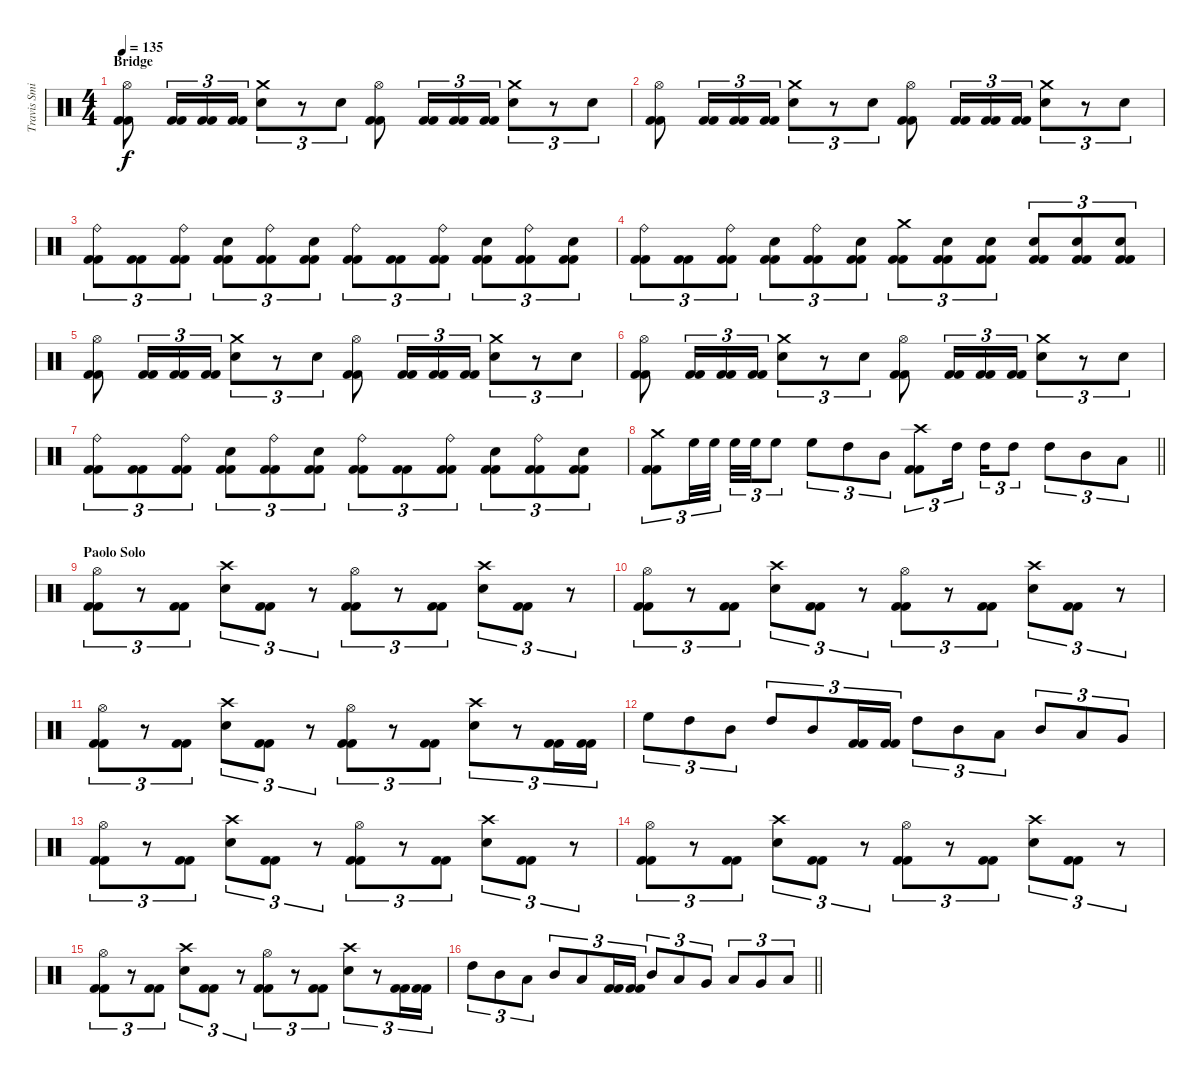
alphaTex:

\track ("Travis Smith" "Travis Smi") {instrument percussion}
\staff {score}
\articulation defaults
\ts (4 4)
\section ("" "Bridge")
\tempo 135
\clef neutral
\ks c
("Hi-Hat (open)" "Kick (hit) 2" "Kick (hit) 2").8{dy f} ("Kick (hit) 2" "Kick (hit) 2").16{tu (3 2)} ("Kick (hit) 2" "Kick (hit) 2").16{tu (3 2)} ("Kick (hit) 2" "Kick (hit) 2").16{tu (3 2)} ("Crash medium (hit)" "Electric Snare (hit)").8{tu (3 2)} r.8{tu (3 2)} "Electric Snare (hit)".8{tu (3 2)} ("Hi-Hat (open)" "Kick (hit) 2" "Kick (hit) 2").8 ("Kick (hit) 2" "Kick (hit) 2").16{tu (3 2)} ("Kick (hit) 2" "Kick (hit) 2").16{tu (3 2)} ("Kick (hit) 2" "Kick (hit) 2").16{tu (3 2)} ("Crash medium (hit)" "Electric Snare (hit)").8{tu (3 2)} r.8{tu (3 2)} "Electric Snare (hit)".8{tu (3 2)} |
("Hi-Hat (open)" "Kick (hit) 2" "Kick (hit) 2").8 ("Kick (hit) 2" "Kick (hit) 2").16{tu (3 2)} ("Kick (hit) 2" "Kick (hit) 2").16{tu (3 2)} ("Kick (hit) 2" "Kick (hit) 2").16{tu (3 2)} ("Crash medium (hit)" "Electric Snare (hit)").8{tu (3 2)} r.8{tu (3 2)} "Electric Snare (hit)".8{tu (3 2)} ("Hi-Hat (open)" "Kick (hit) 2" "Kick (hit) 2").8 ("Kick (hit) 2" "Kick (hit) 2").16{tu (3 2)} ("Kick (hit) 2" "Kick (hit) 2").16{tu (3 2)} ("Kick (hit) 2" "Kick (hit) 2").16{tu (3 2)} ("Crash medium (hit)" "Electric Snare (hit)").8{tu (3 2)} r.8{tu (3 2)} "Electric Snare (hit)".8{tu (3 2)} |
("Ride (bell)" "Kick (hit) 2" "Kick (hit) 2").8{tu (3 2)} ("Kick (hit) 2" "Kick (hit) 2").8{tu (3 2)} ("Ride (bell)" "Kick (hit) 2" "Kick (hit) 2").8{tu (3 2)} ("Electric Snare (hit)" "Kick (hit) 2" "Kick (hit) 2").8{tu (3 2)} ("Ride (bell)" "Kick (hit) 2" "Kick (hit) 2").8{tu (3 2)} ("Electric Snare (hit)" "Kick (hit) 2" "Kick (hit) 2").8{tu (3 2)} ("Ride (bell)" "Kick (hit) 2" "Kick (hit) 2").8{tu (3 2)} ("Kick (hit) 2" "Kick (hit) 2").8{tu (3 2)} ("Ride (bell)" "Kick (hit) 2" "Kick (hit) 2").8{tu (3 2)} ("Electric Snare (hit)" "Kick (hit) 2" "Kick (hit) 2").8{tu (3 2)} ("Ride (bell)" "Kick (hit) 2" "Kick (hit) 2").8{tu (3 2)} ("Electric Snare (hit)" "Kick (hit) 2" "Kick (hit) 2").8{tu (3 2)} |
("Ride (bell)" "Kick (hit) 2" "Kick (hit) 2").8{tu (3 2)} ("Kick (hit) 2" "Kick (hit) 2").8{tu (3 2)} ("Ride (bell)" "Kick (hit) 2" "Kick (hit) 2").8{tu (3 2)} ("Electric Snare (hit)" "Kick (hit) 2" "Kick (hit) 2").8{tu (3 2)} ("Ride (bell)" "Kick (hit) 2" "Kick (hit) 2").8{tu (3 2)} ("Electric Snare (hit)" "Kick (hit) 2" "Kick (hit) 2").8{tu (3 2)} ("Crash medium (hit)" "Kick (hit) 2" "Kick (hit) 2").8{tu (3 2)} ("Electric Snare (hit)" "Kick (hit) 2" "Kick (hit) 2").8{tu (3 2)} ("Electric Snare (hit)" "Kick (hit) 2" "Kick (hit) 2").8{tu (3 2)} ("Electric Snare (hit)" "Kick (hit) 2" "Kick (hit) 2").8{tu (3 2)} ("Electric Snare (hit)" "Kick (hit) 2" "Kick (hit) 2").8{tu (3 2)} ("Electric Snare (hit)" "Kick (hit) 2" "Kick (hit) 2").8{tu (3 2)} |
("Hi-Hat (open)" "Kick (hit) 2" "Kick (hit) 2").8 ("Kick (hit) 2" "Kick (hit) 2").16{tu (3 2)} ("Kick (hit) 2" "Kick (hit) 2").16{tu (3 2)} ("Kick (hit) 2" "Kick (hit) 2").16{tu (3 2)} ("Crash medium (hit)" "Electric Snare (hit)").8{tu (3 2)} r.8{tu (3 2)} "Electric Snare (hit)".8{tu (3 2)} ("Hi-Hat (open)" "Kick (hit) 2" "Kick (hit) 2").8 ("Kick (hit) 2" "Kick (hit) 2").16{tu (3 2)} ("Kick (hit) 2" "Kick (hit) 2").16{tu (3 2)} ("Kick (hit) 2" "Kick (hit) 2").16{tu (3 2)} ("Crash medium (hit)" "Electric Snare (hit)").8{tu (3 2)} r.8{tu (3 2)} "Electric Snare (hit)".8{tu (3 2)} |
("Hi-Hat (open)" "Kick (hit) 2" "Kick (hit) 2").8 ("Kick (hit) 2" "Kick (hit) 2").16{tu (3 2)} ("Kick (hit) 2" "Kick (hit) 2").16{tu (3 2)} ("Kick (hit) 2" "Kick (hit) 2").16{tu (3 2)} ("Crash medium (hit)" "Electric Snare (hit)").8{tu (3 2)} r.8{tu (3 2)} "Electric Snare (hit)".8{tu (3 2)} ("Hi-Hat (open)" "Kick (hit) 2" "Kick (hit) 2").8 ("Kick (hit) 2" "Kick (hit) 2").16{tu (3 2)} ("Kick (hit) 2" "Kick (hit) 2").16{tu (3 2)} ("Kick (hit) 2" "Kick (hit) 2").16{tu (3 2)} ("Crash medium (hit)" "Electric Snare (hit)").8{tu (3 2)} r.8{tu (3 2)} "Electric Snare (hit)".8{tu (3 2)} |
("Ride (bell)" "Kick (hit) 2" "Kick (hit) 2").8{tu (3 2)} ("Kick (hit) 2" "Kick (hit) 2").8{tu (3 2)} ("Ride (bell)" "Kick (hit) 2" "Kick (hit) 2").8{tu (3 2)} ("Electric Snare (hit)" "Kick (hit) 2" "Kick (hit) 2").8{tu (3 2)} ("Ride (bell)" "Kick (hit) 2" "Kick (hit) 2").8{tu (3 2)} ("Electric Snare (hit)" "Kick (hit) 2" "Kick (hit) 2").8{tu (3 2)} ("Ride (bell)" "Kick (hit) 2" "Kick (hit) 2").8{tu (3 2)} ("Kick (hit) 2" "Kick (hit) 2").8{tu (3 2)} ("Ride (bell)" "Kick (hit) 2" "Kick (hit) 2").8{tu (3 2)} ("Electric Snare (hit)" "Kick (hit) 2" "Kick (hit) 2").8{tu (3 2)} ("Ride (bell)" "Kick (hit) 2" "Kick (hit) 2").8{tu (3 2)} ("Electric Snare (hit)" "Kick (hit) 2" "Kick (hit) 2").8{tu (3 2)} |
\barLineRight lightlight
("Crash medium (hit)" "Kick (hit) 2" "Kick (hit) 2").8{tu (3 2)} "High Floor Tom (hit)".32{tu (3 2)} "High Floor Tom (hit)".32{tu (3 2) beam splitsecondary} "High Floor Tom (hit)".32{tu (3 2)} "High Floor Tom (hit)".32{tu (3 2)} "High Floor Tom (hit)".8{tu (3 2)} "High Floor Tom (hit)".8{tu (3 2)} "High Tom (hit)".8{tu (3 2)} "Mid Tom (hit)".8{tu (3 2)} ("Crash high (hit)" "Kick (hit) 2" "Kick (hit) 2").8{tu (3 2)} "High Tom (hit)".16{tu (3 2) beam splitsecondary} "High Tom (hit)".16{tu (3 2)} "High Tom (hit)".8{tu (3 2)} "High Tom (hit)".8{tu (3 2)} "Mid Tom (hit)".8{tu (3 2)} "Low Tom (hit)".8{tu (3 2)} |
\section ("" "Paolo Solo")
("Hi-Hat (open)" "Kick (hit) 2" "Kick (hit) 2").8{tu (3 2)} r.8{tu (3 2)} ("Kick (hit) 2" "Kick (hit) 2").8{tu (3 2)} ("Crash high (hit)" "Electric Snare (hit)").8{tu (3 2)} ("Kick (hit) 2" "Kick (hit) 2").8{tu (3 2)} r.8{tu (3 2)} ("Hi-Hat (open)" "Kick (hit) 2" "Kick (hit) 2").8{tu (3 2)} r.8{tu (3 2)} ("Kick (hit) 2" "Kick (hit) 2").8{tu (3 2)} ("Crash high (hit)" "Electric Snare (hit)").8{tu (3 2)} ("Kick (hit) 2" "Kick (hit) 2").8{tu (3 2)} r.8{tu (3 2)} |
("Hi-Hat (open)" "Kick (hit) 2" "Kick (hit) 2").8{tu (3 2)} r.8{tu (3 2)} ("Kick (hit) 2" "Kick (hit) 2").8{tu (3 2)} ("Crash high (hit)" "Electric Snare (hit)").8{tu (3 2)} ("Kick (hit) 2" "Kick (hit) 2").8{tu (3 2)} r.8{tu (3 2)} ("Hi-Hat (open)" "Kick (hit) 2" "Kick (hit) 2").8{tu (3 2)} r.8{tu (3 2)} ("Kick (hit) 2" "Kick (hit) 2").8{tu (3 2)} ("Crash high (hit)" "Electric Snare (hit)").8{tu (3 2)} ("Kick (hit) 2" "Kick (hit) 2").8{tu (3 2)} r.8{tu (3 2)} |
("Hi-Hat (open)" "Kick (hit) 2" "Kick (hit) 2").8{tu (3 2)} r.8{tu (3 2)} ("Kick (hit) 2" "Kick (hit) 2").8{tu (3 2)} ("Crash high (hit)" "Electric Snare (hit)").8{tu (3 2)} ("Kick (hit) 2" "Kick (hit) 2").8{tu (3 2)} r.8{tu (3 2)} ("Hi-Hat (open)" "Kick (hit) 2" "Kick (hit) 2").8{tu (3 2)} r.8{tu (3 2)} ("Kick (hit) 2" "Kick (hit) 2").8{tu (3 2)} ("Crash high (hit)" "Electric Snare (hit)").8{tu (3 2)} r.8{tu (3 2)} ("Kick (hit) 2" "Kick (hit) 2").16{tu (3 2)} ("Kick (hit) 2" "Kick (hit) 2").16{tu (3 2)} |
"High Floor Tom (hit)".8{tu (3 2)} "High Tom (hit)".8{tu (3 2)} "Mid Tom (hit)".8{tu (3 2)} "High Tom (hit)".8{tu (3 2)} "Mid Tom (hit)".8{tu (3 2)} ("Kick (hit) 2" "Kick (hit) 2").16{tu (3 2)} ("Kick (hit) 2" "Kick (hit) 2").16{tu (3 2)} "High Tom (hit)".8{tu (3 2)} "Mid Tom (hit)".8{tu (3 2)} "Low Tom (hit)".8{tu (3 2)} "Mid Tom (hit)".8{tu (3 2)} "Low Tom (hit)".8{tu (3 2)} "Very Low Tom (hit)".8{tu (3 2)} |
("Hi-Hat (open)" "Kick (hit) 2" "Kick (hit) 2").8{tu (3 2)} r.8{tu (3 2)} ("Kick (hit) 2" "Kick (hit) 2").8{tu (3 2)} ("Crash high (hit)" "Electric Snare (hit)").8{tu (3 2)} ("Kick (hit) 2" "Kick (hit) 2").8{tu (3 2)} r.8{tu (3 2)} ("Hi-Hat (open)" "Kick (hit) 2" "Kick (hit) 2").8{tu (3 2)} r.8{tu (3 2)} ("Kick (hit) 2" "Kick (hit) 2").8{tu (3 2)} ("Crash high (hit)" "Electric Snare (hit)").8{tu (3 2)} ("Kick (hit) 2" "Kick (hit) 2").8{tu (3 2)} r.8{tu (3 2)} |
("Hi-Hat (open)" "Kick (hit) 2" "Kick (hit) 2").8{tu (3 2)} r.8{tu (3 2)} ("Kick (hit) 2" "Kick (hit) 2").8{tu (3 2)} ("Crash high (hit)" "Electric Snare (hit)").8{tu (3 2)} ("Kick (hit) 2" "Kick (hit) 2").8{tu (3 2)} r.8{tu (3 2)} ("Hi-Hat (open)" "Kick (hit) 2" "Kick (hit) 2").8{tu (3 2)} r.8{tu (3 2)} ("Kick (hit) 2" "Kick (hit) 2").8{tu (3 2)} ("Crash high (hit)" "Electric Snare (hit)").8{tu (3 2)} ("Kick (hit) 2" "Kick (hit) 2").8{tu (3 2)} r.8{tu (3 2)} |
("Hi-Hat (open)" "Kick (hit) 2" "Kick (hit) 2").8{tu (3 2)} r.8{tu (3 2)} ("Kick (hit) 2" "Kick (hit) 2").8{tu (3 2)} ("Crash high (hit)" "Electric Snare (hit)").8{tu (3 2)} ("Kick (hit) 2" "Kick (hit) 2").8{tu (3 2)} r.8{tu (3 2)} ("Hi-Hat (open)" "Kick (hit) 2" "Kick (hit) 2").8{tu (3 2)} r.8{tu (3 2)} ("Kick (hit) 2" "Kick (hit) 2").8{tu (3 2)} ("Crash high (hit)" "Electric Snare (hit)").8{tu (3 2)} r.8{tu (3 2)} ("Kick (hit) 2" "Kick (hit) 2").16{tu (3 2)} ("Kick (hit) 2" "Kick (hit) 2").16{tu (3 2)} |
\barLineRight lightlight "High Tom (hit)".8{tu (3 2)} "Mid Tom (hit)".8{tu (3 2)} "Low Tom (hit)".8{tu (3 2)} "Mid Tom (hit)".8{tu (3 2)} "Low Tom (hit)".8{tu (3 2)}
("Kick (hit) 2" "Kick (hit) 2").16{tu (3 2)} ("Kick (hit) 2" "Kick (hit) 2").16{tu (3 2)} "Mid Tom (hit)".8{tu (3 2)} "Low Tom (hit)".8{tu (3 2)} "Very Low Tom (hit)".8{tu (3 2)} "Low Tom (hit)".8{tu (3 2)} "Very Low Tom (hit)".8{tu (3 2)} "Low Floor Tom (hit)".8{tu (3 2)}
